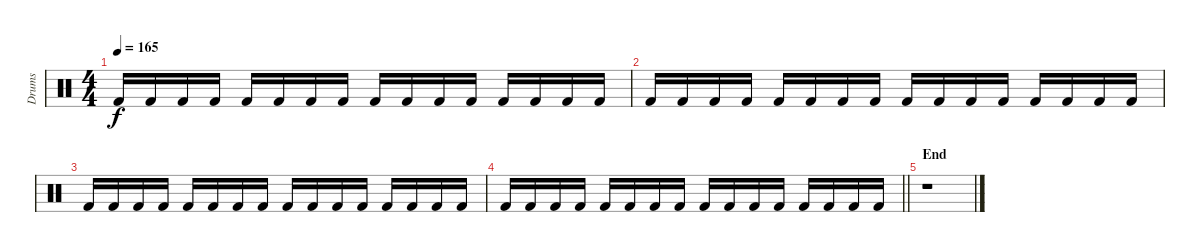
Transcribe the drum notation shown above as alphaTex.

\track ("Drums" "Drums") {instrument percussion}
\staff {score}
\articulation defaults
\ts (4 4)
\tempo 165
\clef neutral
\ks c "Kick (hit) 2".16{dy f volume 10} "Kick (hit) 2".16 "Kick (hit) 2".16 "Kick (hit) 2".16 "Kick (hit) 2".16 "Kick (hit) 2".16 "Kick (hit) 2".16 "Kick (hit) 2".16 "Kick (hit) 2".16{volume 9} "Kick (hit) 2".16 "Kick (hit) 2".16 "Kick (hit) 2".16 "Kick (hit) 2".16 "Kick (hit) 2".16 "Kick (hit) 2".16 "Kick (hit) 2".16
|
"Kick (hit) 2".16{volume 8} "Kick (hit) 2".16 "Kick (hit) 2".16 "Kick (hit) 2".16 "Kick (hit) 2".16 "Kick (hit) 2".16 "Kick (hit) 2".16 "Kick (hit) 2".16 "Kick (hit) 2".16{volume 7} "Kick (hit) 2".16 "Kick (hit) 2".16 "Kick (hit) 2".16 "Kick (hit) 2".16 "Kick (hit) 2".16 "Kick (hit) 2".16 "Kick (hit) 2".16 |
"Kick (hit) 2".16{volume 6} "Kick (hit) 2".16 "Kick (hit) 2".16 "Kick (hit) 2".16 "Kick (hit) 2".16 "Kick (hit) 2".16 "Kick (hit) 2".16 "Kick (hit) 2".16 "Kick (hit) 2".16{volume 5} "Kick (hit) 2".16 "Kick (hit) 2".16 "Kick (hit) 2".16 "Kick (hit) 2".16 "Kick (hit) 2".16 "Kick (hit) 2".16 "Kick (hit) 2".16 |
\barLineRight lightlight "Kick (hit) 2".16{volume 4} "Kick (hit) 2".16 "Kick (hit) 2".16 "Kick (hit) 2".16 "Kick (hit) 2".16 "Kick (hit) 2".16 "Kick (hit) 2".16 "Kick (hit) 2".16 "Kick (hit) 2".16{volume 3} "Kick (hit) 2".16 "Kick (hit) 2".16 "Kick (hit) 2".16 "Kick (hit) 2".16 "Kick (hit) 2".16 "Kick (hit) 2".16 "Kick (hit) 2".16
|
\section ("" "End")
r.1
